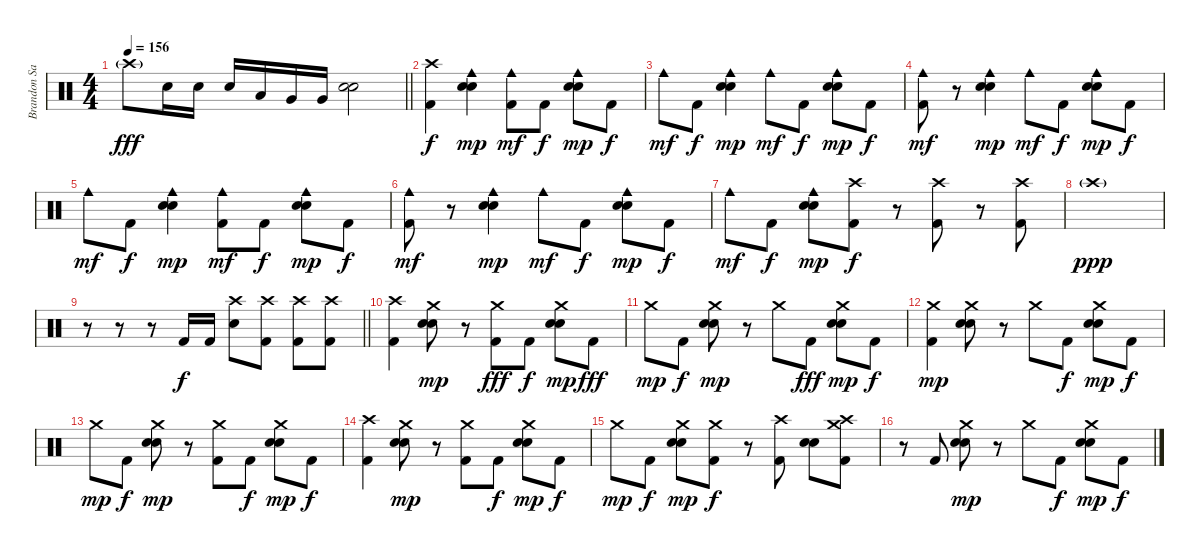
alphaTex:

\track ("Brandon Saller" "Brandon Sa") {instrument percussion}
\staff {score}
\articulation defaults
\ts (4 4)
\tempo 156
\clef neutral
\barLineRight lightlight
\ks c "Crash high (hit)"{g}.8{dy fff} "Electric Snare (hit)".16 "Electric Snare (hit)".16 "Electric Snare (hit)".16 "Low Tom (hit)".16 "Very Low Tom (hit)".16 "Very Low Tom (hit)".16
("Snare (hit) 2" "Electric Snare (hit)").2 |
("Crash high (hit)" "Kick (hit) 2").4{dy f} ("Cowbell medium (hit)" "Snare (hit) 2" "Electric Snare (hit)").4{dy mp} ("Cowbell medium (hit)" "Kick (hit) 2").8{dy mf} "Kick (hit) 2".8{dy f} ("Cowbell medium (hit)" "Snare (hit) 2" "Electric Snare (hit)").8{dy mp} "Kick (hit) 2".8{dy f} |
"Cowbell medium (hit)".8{dy mf} "Kick (hit) 2".8{dy f} ("Cowbell medium (hit)" "Snare (hit) 2" "Electric Snare (hit)").4{dy mp} "Cowbell medium (hit)".8{dy mf} "Kick (hit) 2".8{dy f} ("Cowbell medium (hit)" "Snare (hit) 2" "Electric Snare (hit)").8{dy mp} "Kick (hit) 2".8{dy f} |
("Cowbell medium (hit)" "Kick (hit) 2").8{dy mf} r.8 ("Cowbell medium (hit)" "Snare (hit) 2" "Electric Snare (hit)").4{dy mp} "Cowbell medium (hit)".8{dy mf} "Kick (hit) 2".8{dy f} ("Cowbell medium (hit)" "Snare (hit) 2" "Electric Snare (hit)").8{dy mp} "Kick (hit) 2".8{dy f} |
"Cowbell medium (hit)".8{dy mf} "Kick (hit) 2".8{dy f} ("Cowbell medium (hit)" "Snare (hit) 2" "Electric Snare (hit)").4{dy mp} ("Cowbell medium (hit)" "Kick (hit) 2").8{dy mf} "Kick (hit) 2".8{dy f} ("Cowbell medium (hit)" "Snare (hit) 2" "Electric Snare (hit)").8{dy mp} "Kick (hit) 2".8{dy f} |
("Cowbell medium (hit)" "Kick (hit) 2").8{dy mf} r.8 ("Cowbell medium (hit)" "Snare (hit) 2" "Electric Snare (hit)").4{dy mp} "Cowbell medium (hit)".8{dy mf} "Kick (hit) 2".8{dy f} ("Cowbell medium (hit)" "Snare (hit) 2" "Electric Snare (hit)").8{dy mp} "Kick (hit) 2".8{dy f} |
"Cowbell medium (hit)".8{dy mf} "Kick (hit) 2".8{dy f} ("Cowbell medium (hit)" "Snare (hit) 2" "Electric Snare (hit)").8{dy mp} ("Crash high (hit)" "Kick (hit) 2").8{dy f} r.8{volume 2} ("Crash high (hit)" "Kick (hit) 2").8{volume 13} r.8{volume 3} ("Crash high (hit)" "Kick (hit) 2").8{volume 13} |
"Crash high (hit)"{g}.1{dy ppp} |
\barLineRight lightlight
r.8 r.8 r.8 "Kick (hit) 2".16{dy f} "Kick (hit) 2".16 ("Crash high (hit)" "Electric Snare (hit)").8 ("Crash high (hit)" "Kick (hit) 2").8 ("Crash high (hit)" "Kick (hit) 2").8 ("Crash high (hit)" "Kick (hit) 2").8 |
("Crash high (hit)" "Kick (hit) 2").4 ("Crash medium (hit)" "Snare (hit) 2" "Electric Snare (hit)").8{dy mp} r.8 ("Crash medium (hit)" "Kick (hit) 2").8{dy fff} "Kick (hit) 2".8{dy f} ("Crash medium (hit)" "Snare (hit) 2" "Electric Snare (hit)").8{dy mp} "Kick (hit) 2".8{dy fff} |
"Crash medium (hit)".8{dy mp} "Kick (hit) 2".8{dy f} ("Crash medium (hit)" "Snare (hit) 2" "Electric Snare (hit)").8{dy mp} r.8 "Crash medium (hit)".8 "Kick (hit) 2".8{dy fff} ("Crash medium (hit)" "Snare (hit) 2" "Electric Snare (hit)").8{dy mp} "Kick (hit) 2".8{dy f} |
("Crash medium (hit)" "Kick (hit) 2").4{dy mp} ("Crash medium (hit)" "Snare (hit) 2" "Electric Snare (hit)").8 r.8 "Crash medium (hit)".8 "Kick (hit) 2".8{dy f} ("Crash medium (hit)" "Snare (hit) 2" "Electric Snare (hit)").8{dy mp} "Kick (hit) 2".8{dy f} |
"Crash medium (hit)".8{dy mp} "Kick (hit) 2".8{dy f} ("Crash medium (hit)" "Snare (hit) 2" "Electric Snare (hit)").8{dy mp} r.8 ("Crash medium (hit)" "Kick (hit) 2").8 "Kick (hit) 2".8{dy f} ("Crash medium (hit)" "Snare (hit) 2" "Electric Snare (hit)").8{dy mp} "Kick (hit) 2".8{dy f} |
("Crash high (hit)" "Kick (hit) 2").4 ("Crash medium (hit)" "Snare (hit) 2" "Electric Snare (hit)").8{dy mp} r.8 ("Crash medium (hit)" "Kick (hit) 2").8 "Kick (hit) 2".8{dy f} ("Crash medium (hit)" "Snare (hit) 2" "Electric Snare (hit)").8{dy mp} "Kick (hit) 2".8{dy f} |
"Crash medium (hit)".8{dy mp} "Kick (hit) 2".8{dy f} ("Crash medium (hit)" "Snare (hit) 2" "Electric Snare (hit)").8{dy mp} ("Crash medium (hit)" "Kick (hit) 2").8{dy f} r.8 ("Crash high (hit)" "Kick (hit) 2").8 ("Snare (hit) 2" "Electric Snare (hit)").8 ("Crash high (hit)" "Crash medium (hit)" "Kick (hit) 2").8 |
r.8 "Kick (hit) 2".8 ("Crash medium (hit)" "Snare (hit) 2" "Electric Snare (hit)").8{dy mp} r.8 "Crash medium (hit)".8 "Kick (hit) 2".8{dy f} ("Crash medium (hit)" "Snare (hit) 2" "Electric Snare (hit)").8{dy mp} "Kick (hit) 2".8{dy f}
